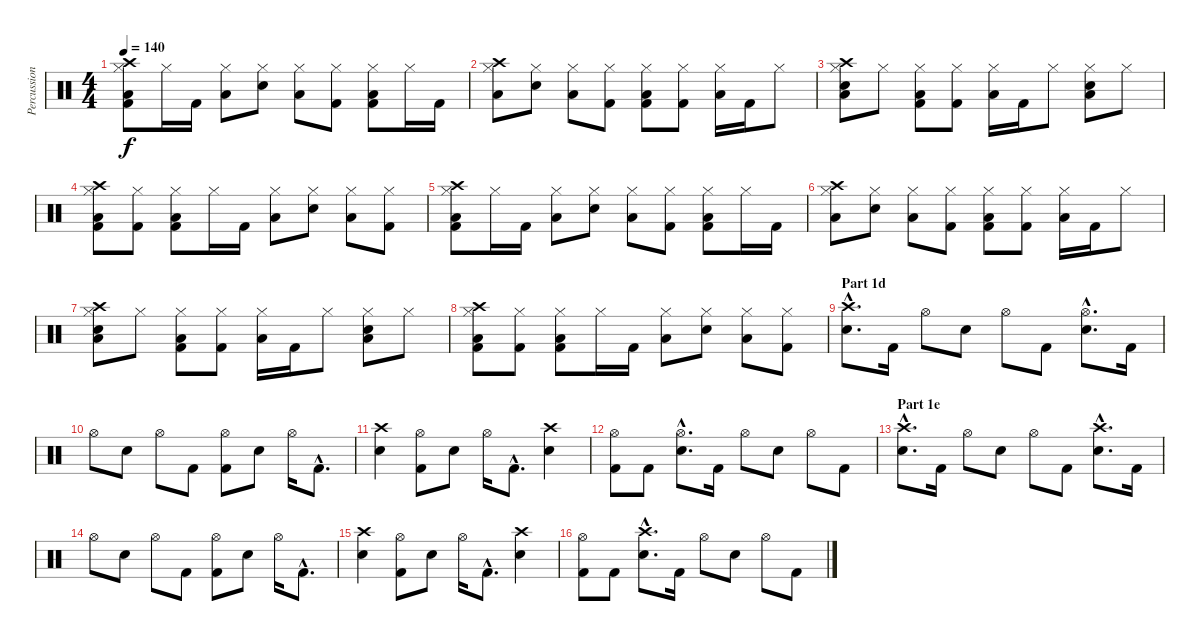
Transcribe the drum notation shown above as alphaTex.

\track ("Percussion" "Percussion") {instrument percussion}
\staff {score}
\articulation defaults
\ts (4 4)
\tempo 140
\clef neutral
\ks c
("Crash high (hit)" "Hi-Hat (closed)" "Low Tom (hit)" "Kick (hit) 2").8{dy f} "Hi-Hat (closed)".16 "Kick (hit) 2".16 ("Hi-Hat (closed)" "Low Tom (hit)").8 ("Hi-Hat (closed)" "Electric Snare (hit)").8 ("Hi-Hat (closed)" "Low Tom (hit)").8 ("Hi-Hat (closed)" "Kick (hit) 2").8 ("Hi-Hat (closed)" "Low Tom (hit)" "Kick (hit) 2").8 "Hi-Hat (closed)".16 "Kick (hit) 2".16 |
("Crash high (hit)" "Hi-Hat (closed)" "Low Tom (hit)").8 ("Hi-Hat (closed)" "Electric Snare (hit)").8 ("Hi-Hat (closed)" "Low Tom (hit)").8 ("Hi-Hat (closed)" "Kick (hit) 2").8 ("Hi-Hat (closed)" "Low Tom (hit)" "Kick (hit) 2").8 ("Hi-Hat (closed)" "Kick (hit) 2").8 ("Hi-Hat (closed)" "Low Tom (hit)").16 "Kick (hit) 2".16 "Hi-Hat (closed)".8 |
("Crash high (hit)" "Hi-Hat (closed)" "Low Tom (hit)" "Electric Snare (hit)").8 "Hi-Hat (closed)".8 ("Hi-Hat (closed)" "Low Tom (hit)" "Kick (hit) 2").8 ("Hi-Hat (closed)" "Kick (hit) 2").8 ("Hi-Hat (closed)" "Low Tom (hit)").16 "Kick (hit) 2".16 "Hi-Hat (closed)".8 ("Hi-Hat (closed)" "Low Tom (hit)" "Electric Snare (hit)").8 "Hi-Hat (closed)".8 |
("Crash high (hit)" "Hi-Hat (closed)" "Low Tom (hit)" "Kick (hit) 2").8 ("Hi-Hat (closed)" "Kick (hit) 2").8 ("Hi-Hat (closed)" "Low Tom (hit)" "Kick (hit) 2").8 "Hi-Hat (closed)".16 "Kick (hit) 2".16 ("Hi-Hat (closed)" "Low Tom (hit)").8 ("Hi-Hat (closed)" "Electric Snare (hit)").8 ("Hi-Hat (closed)" "Low Tom (hit)").8 ("Hi-Hat (closed)" "Kick (hit) 2").8 |
("Crash high (hit)" "Hi-Hat (closed)" "Low Tom (hit)" "Kick (hit) 2").8 "Hi-Hat (closed)".16 "Kick (hit) 2".16 ("Hi-Hat (closed)" "Low Tom (hit)").8 ("Hi-Hat (closed)" "Electric Snare (hit)").8 ("Hi-Hat (closed)" "Low Tom (hit)").8 ("Hi-Hat (closed)" "Kick (hit) 2").8 ("Hi-Hat (closed)" "Low Tom (hit)" "Kick (hit) 2").8 "Hi-Hat (closed)".16 "Kick (hit) 2".16 |
("Crash high (hit)" "Hi-Hat (closed)" "Low Tom (hit)").8 ("Hi-Hat (closed)" "Electric Snare (hit)").8 ("Hi-Hat (closed)" "Low Tom (hit)").8 ("Hi-Hat (closed)" "Kick (hit) 2").8 ("Hi-Hat (closed)" "Low Tom (hit)" "Kick (hit) 2").8 ("Hi-Hat (closed)" "Kick (hit) 2").8 ("Hi-Hat (closed)" "Low Tom (hit)").16 "Kick (hit) 2".16 "Hi-Hat (closed)".8 |
("Crash high (hit)" "Hi-Hat (closed)" "Low Tom (hit)" "Electric Snare (hit)").8 "Hi-Hat (closed)".8 ("Hi-Hat (closed)" "Low Tom (hit)" "Kick (hit) 2").8 ("Hi-Hat (closed)" "Kick (hit) 2").8 ("Hi-Hat (closed)" "Low Tom (hit)").16 "Kick (hit) 2".16 "Hi-Hat (closed)".8 ("Hi-Hat (closed)" "Low Tom (hit)" "Electric Snare (hit)").8 "Hi-Hat (closed)".8 |
("Crash high (hit)" "Hi-Hat (closed)" "Low Tom (hit)" "Kick (hit) 2").8 ("Hi-Hat (closed)" "Kick (hit) 2").8 ("Hi-Hat (closed)" "Low Tom (hit)" "Kick (hit) 2").8 "Hi-Hat (closed)".16 "Kick (hit) 2".16 ("Hi-Hat (closed)" "Low Tom (hit)").8 ("Hi-Hat (closed)" "Electric Snare (hit)").8 ("Hi-Hat (closed)" "Low Tom (hit)").8 ("Hi-Hat (closed)" "Kick (hit) 2").8 |
\section ("" "Part 1d")
("Crash high (hit)"{hac} "Electric Snare (hit)"{hac}).8{d} "Kick (hit) 2".16 "Hi-Hat (open)".8 "Electric Snare (hit)".8 "Hi-Hat (open)".8 "Kick (hit) 2".8 ("Hi-Hat (open)"{hac} "Electric Snare (hit)"{hac}).8{d} "Kick (hit) 2".16 |
"Hi-Hat (open)".8 "Electric Snare (hit)".8 "Hi-Hat (open)".8 "Kick (hit) 2".8 ("Hi-Hat (open)" "Kick (hit) 2").8 "Electric Snare (hit)".8 "Hi-Hat (open)".16 "Kick (hit) 2"{hac}.8{d} |
("Crash high (hit)" "Electric Snare (hit)").4 ("Hi-Hat (open)" "Kick (hit) 2").8 "Electric Snare (hit)".8 "Hi-Hat (open)".16 "Kick (hit) 2"{hac}.8{d} ("Crash high (hit)" "Electric Snare (hit)").4 |
("Hi-Hat (open)" "Kick (hit) 2").8 "Kick (hit) 2".8 ("Hi-Hat (open)"{hac} "Electric Snare (hit)"{hac}).8{d} "Kick (hit) 2".16 "Hi-Hat (open)".8 "Electric Snare (hit)".8 "Hi-Hat (open)".8 "Kick (hit) 2".8 |
\section ("" "Part 1e")
("Crash high (hit)"{hac} "Electric Snare (hit)"{hac}).8{d} "Kick (hit) 2".16 "Hi-Hat (open)".8 "Electric Snare (hit)".8 "Hi-Hat (open)".8 "Kick (hit) 2".8 ("Crash high (hit)"{hac} "Electric Snare (hit)"{hac}).8{d} "Kick (hit) 2".16 |
"Hi-Hat (open)".8 "Electric Snare (hit)".8 "Hi-Hat (open)".8 "Kick (hit) 2".8 ("Hi-Hat (open)" "Kick (hit) 2").8 "Electric Snare (hit)".8 "Hi-Hat (open)".16 "Kick (hit) 2"{hac}.8{d} |
("Crash high (hit)" "Electric Snare (hit)").4 ("Hi-Hat (open)" "Kick (hit) 2").8 "Electric Snare (hit)".8 "Hi-Hat (open)".16 "Kick (hit) 2"{hac}.8{d} ("Crash high (hit)" "Electric Snare (hit)").4 |
("Hi-Hat (open)" "Kick (hit) 2").8 "Kick (hit) 2".8 ("Crash high (hit)"{hac} "Electric Snare (hit)"{hac}).8{d} "Kick (hit) 2".16 "Hi-Hat (open)".8 "Electric Snare (hit)".8 "Hi-Hat (open)".8 "Kick (hit) 2".8
